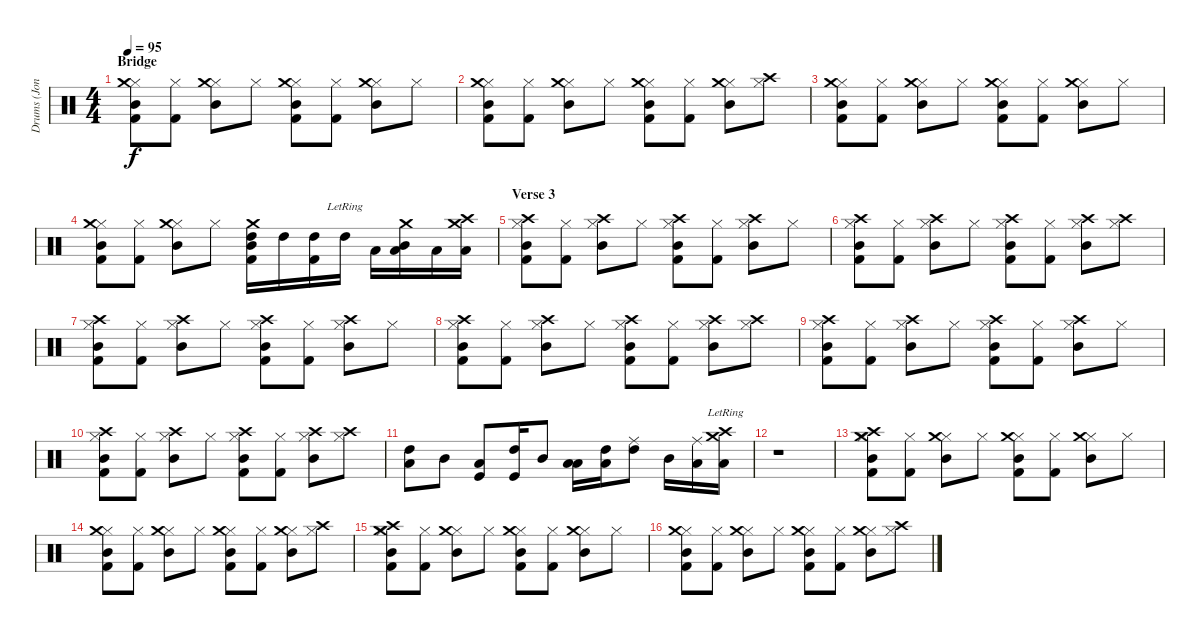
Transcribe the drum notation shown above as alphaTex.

\track ("Drums (Jon Lee)" "Drums (Jon") {instrument percussion}
\staff {score}
\articulation defaults
\ts (4 4)
\section ("" "Bridge")
\tempo 95
\clef neutral
\ks c
("Hi-Hat (closed)" "Crash medium (hit)" "Mid Tom (hit)" "Kick (hit) 2").8{dy f volume 13} ("Hi-Hat (closed)" "Kick (hit) 2").8 ("Hi-Hat (closed)" "Crash medium (hit)" "Mid Tom (hit)").8 "Hi-Hat (closed)".8 ("Hi-Hat (closed)" "Crash medium (hit)" "Mid Tom (hit)" "Kick (hit) 2").8 ("Hi-Hat (closed)" "Kick (hit) 2").8 ("Hi-Hat (closed)" "Crash medium (hit)" "Mid Tom (hit)").8 "Hi-Hat (closed)".8 |
("Hi-Hat (closed)" "Crash medium (hit)" "Mid Tom (hit)" "Kick (hit) 2").8 ("Hi-Hat (closed)" "Kick (hit) 2").8 ("Hi-Hat (closed)" "Crash medium (hit)" "Mid Tom (hit)").8 "Hi-Hat (closed)".8 ("Hi-Hat (closed)" "Crash medium (hit)" "Mid Tom (hit)" "Kick (hit) 2").8 ("Hi-Hat (closed)" "Kick (hit) 2").8 ("Hi-Hat (closed)" "Crash medium (hit)" "Mid Tom (hit)").8 ("Hi-Hat (closed)" "Crash high (hit)").8 |
("Hi-Hat (closed)" "Crash medium (hit)" "Mid Tom (hit)" "Kick (hit) 2").8 ("Hi-Hat (closed)" "Kick (hit) 2").8 ("Hi-Hat (closed)" "Crash medium (hit)" "Mid Tom (hit)").8 "Hi-Hat (closed)".8 ("Hi-Hat (closed)" "Crash medium (hit)" "Mid Tom (hit)" "Kick (hit) 2").8 ("Hi-Hat (closed)" "Kick (hit) 2").8 ("Hi-Hat (closed)" "Crash medium (hit)" "Mid Tom (hit)").8 "Hi-Hat (closed)".8 |
("Hi-Hat (closed)" "Crash medium (hit)" "Mid Tom (hit)" "Kick (hit) 2").8{volume 16} ("Hi-Hat (closed)" "Kick (hit) 2").8 ("Hi-Hat (closed)" "Crash medium (hit)" "Mid Tom (hit)").8 "Hi-Hat (closed)".8 ("High Tom (hit)" "Crash medium (hit)" "Mid Tom (hit)" "Kick (hit) 2").16 "High Tom (hit)".16 ("High Tom (hit)" "Kick (hit) 2").16 "High Tom (hit)"{lr}.16 "Low Tom (hit)".16 ("Low Tom (hit)" "Crash medium (hit)" "Mid Tom (hit)").16 "Low Tom (hit)".16 ("Low Tom (hit)" "Crash high (hit)" "Crash medium (hit)").16 |
\section ("" "Verse 3")
("Hi-Hat (closed)" "Crash high (hit)" "Mid Tom (hit)" "Kick (hit) 2").8{volume 13} ("Hi-Hat (closed)" "Kick (hit) 2").8 ("Hi-Hat (closed)" "Crash high (hit)" "Mid Tom (hit)").8 "Hi-Hat (closed)".8 ("Hi-Hat (closed)" "Crash high (hit)" "Mid Tom (hit)" "Kick (hit) 2").8 ("Hi-Hat (closed)" "Kick (hit) 2").8 ("Hi-Hat (closed)" "Crash high (hit)" "Mid Tom (hit)").8 "Hi-Hat (closed)".8 |
("Hi-Hat (closed)" "Crash high (hit)" "Mid Tom (hit)" "Kick (hit) 2").8 ("Hi-Hat (closed)" "Kick (hit) 2").8 ("Hi-Hat (closed)" "Crash high (hit)" "Mid Tom (hit)").8 "Hi-Hat (closed)".8 ("Hi-Hat (closed)" "Crash high (hit)" "Mid Tom (hit)" "Kick (hit) 2").8 ("Hi-Hat (closed)" "Kick (hit) 2").8 ("Hi-Hat (closed)" "Crash high (hit)" "Mid Tom (hit)").8 ("Hi-Hat (closed)" "Crash high (hit)").8 |
("Hi-Hat (closed)" "Crash high (hit)" "Mid Tom (hit)" "Kick (hit) 2").8{volume 13} ("Hi-Hat (closed)" "Kick (hit) 2").8 ("Hi-Hat (closed)" "Crash high (hit)" "Mid Tom (hit)").8 "Hi-Hat (closed)".8 ("Hi-Hat (closed)" "Crash high (hit)" "Mid Tom (hit)" "Kick (hit) 2").8 ("Hi-Hat (closed)" "Kick (hit) 2").8 ("Hi-Hat (closed)" "Crash high (hit)" "Mid Tom (hit)").8 "Hi-Hat (closed)".8 |
("Hi-Hat (closed)" "Crash high (hit)" "Mid Tom (hit)" "Kick (hit) 2").8 ("Hi-Hat (closed)" "Kick (hit) 2").8 ("Hi-Hat (closed)" "Crash high (hit)" "Mid Tom (hit)").8 "Hi-Hat (closed)".8 ("Hi-Hat (closed)" "Crash high (hit)" "Mid Tom (hit)" "Kick (hit) 2").8 ("Hi-Hat (closed)" "Kick (hit) 2").8 ("Hi-Hat (closed)" "Crash high (hit)" "Mid Tom (hit)").8 ("Hi-Hat (closed)" "Crash high (hit)").8 |
("Hi-Hat (closed)" "Crash high (hit)" "Mid Tom (hit)" "Kick (hit) 2").8{volume 13} ("Hi-Hat (closed)" "Kick (hit) 2").8 ("Hi-Hat (closed)" "Crash high (hit)" "Mid Tom (hit)").8 "Hi-Hat (closed)".8 ("Hi-Hat (closed)" "Crash high (hit)" "Mid Tom (hit)" "Kick (hit) 2").8 ("Hi-Hat (closed)" "Kick (hit) 2").8 ("Hi-Hat (closed)" "Crash high (hit)" "Mid Tom (hit)").8 "Hi-Hat (closed)".8 |
("Hi-Hat (closed)" "Crash high (hit)" "Mid Tom (hit)" "Kick (hit) 2").8 ("Hi-Hat (closed)" "Kick (hit) 2").8 ("Hi-Hat (closed)" "Crash high (hit)" "Mid Tom (hit)").8 "Hi-Hat (closed)".8 ("Hi-Hat (closed)" "Crash high (hit)" "Mid Tom (hit)" "Kick (hit) 2").8 ("Hi-Hat (closed)" "Kick (hit) 2").8 ("Hi-Hat (closed)" "Crash high (hit)" "Mid Tom (hit)").8 ("Hi-Hat (closed)" "Crash high (hit)").8 |
("Low Floor Tom (hit)" "High Tom (hit)").8{volume 16} "Mid Tom (hit)".8 ("Kick (hit)" "Low Floor Tom (hit)").8 ("Kick (hit)" "High Tom (hit)").16 "Mid Tom (hit)".8 ("Low Floor Tom (hit)" "Low Tom (hit)").16 ("High Tom (hit)" "Low Floor Tom (hit)").16 ("Ride (middle)" "High Tom (hit)").8 "Mid Tom (hit)".16 ("Ride (middle)" "Low Tom (hit)").16 ("Crash medium (hit)"{lr} "Low Floor Tom (hit)" "Crash high (hit)"{lr}).16 |
r.1 |
("Hi-Hat (closed)" "Crash high (hit)" "Crash medium (hit)" "Mid Tom (hit)" "Kick (hit) 2").8{volume 13} ("Hi-Hat (closed)" "Kick (hit) 2").8 ("Hi-Hat (closed)" "Crash medium (hit)" "Mid Tom (hit)").8 "Hi-Hat (closed)".8 ("Hi-Hat (closed)" "Crash medium (hit)" "Mid Tom (hit)" "Kick (hit) 2").8 ("Hi-Hat (closed)" "Kick (hit) 2").8 ("Hi-Hat (closed)" "Crash medium (hit)" "Mid Tom (hit)").8 "Hi-Hat (closed)".8 |
("Hi-Hat (closed)" "Crash medium (hit)" "Mid Tom (hit)" "Kick (hit) 2").8 ("Hi-Hat (closed)" "Kick (hit) 2").8 ("Hi-Hat (closed)" "Crash medium (hit)" "Mid Tom (hit)").8 "Hi-Hat (closed)".8 ("Hi-Hat (closed)" "Crash medium (hit)" "Mid Tom (hit)" "Kick (hit) 2").8 ("Hi-Hat (closed)" "Kick (hit) 2").8 ("Hi-Hat (closed)" "Crash medium (hit)" "Mid Tom (hit)").8 ("Hi-Hat (closed)" "Crash high (hit)").8 |
("Hi-Hat (closed)" "Crash high (hit)" "Crash medium (hit)" "Mid Tom (hit)" "Kick (hit) 2").8{volume 13} ("Hi-Hat (closed)" "Kick (hit) 2").8 ("Hi-Hat (closed)" "Crash medium (hit)" "Mid Tom (hit)").8 "Hi-Hat (closed)".8 ("Hi-Hat (closed)" "Crash medium (hit)" "Mid Tom (hit)" "Kick (hit) 2").8 ("Hi-Hat (closed)" "Kick (hit) 2").8 ("Hi-Hat (closed)" "Crash medium (hit)" "Mid Tom (hit)").8 "Hi-Hat (closed)".8 |
("Hi-Hat (closed)" "Crash medium (hit)" "Mid Tom (hit)" "Kick (hit) 2").8 ("Hi-Hat (closed)" "Kick (hit) 2").8 ("Hi-Hat (closed)" "Crash medium (hit)" "Mid Tom (hit)").8 "Hi-Hat (closed)".8 ("Hi-Hat (closed)" "Crash medium (hit)" "Mid Tom (hit)" "Kick (hit) 2").8 ("Hi-Hat (closed)" "Kick (hit) 2").8 ("Hi-Hat (closed)" "Crash medium (hit)" "Mid Tom (hit)").8 ("Hi-Hat (closed)" "Crash high (hit)").8
